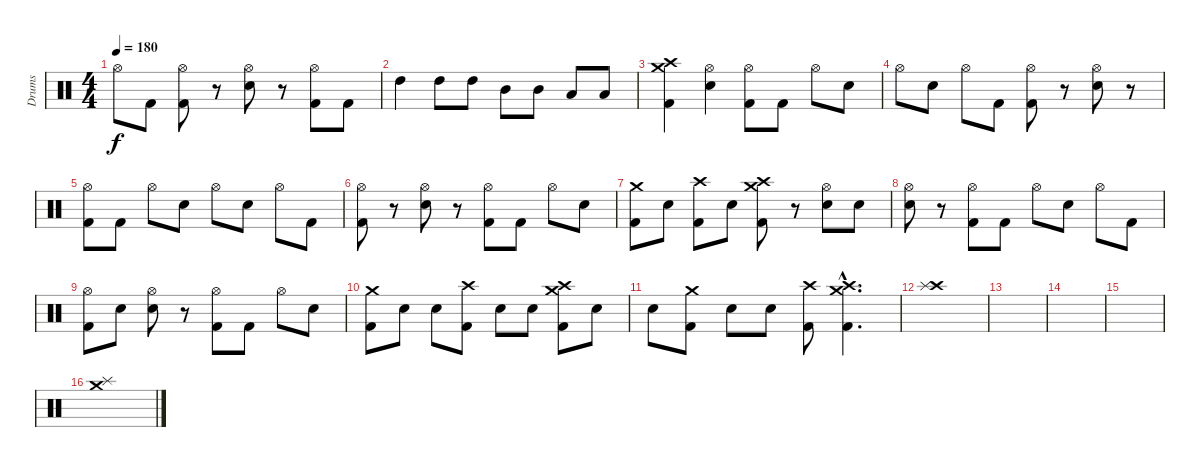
\track ("Drums" "Drums") {instrument percussion}
\staff {score}
\articulation defaults
\ts (4 4)
\tempo 180
\clef neutral
\ks c "Hi-Hat (open)".8{dy f} "Kick (hit) 2".8
("Hi-Hat (open)" "Kick (hit) 2").8 r.8 ("Hi-Hat (open)" "Electric Snare (hit)").8 r.8 ("Hi-Hat (open)" "Kick (hit) 2").8 "Kick (hit) 2".8 |
"High Tom (hit)".4 "High Tom (hit)".8 "High Tom (hit)".8 "Mid Tom (hit)".8 "Mid Tom (hit)".8 "Low Tom (hit)".8 "Low Tom (hit)".8 |
("Crash high (hit)" "Crash medium (hit)" "Kick (hit) 2").4 ("Hi-Hat (open)" "Electric Snare (hit)").4 ("Hi-Hat (open)" "Kick (hit) 2").8 "Kick (hit) 2".8 "Hi-Hat (open)".8 "Electric Snare (hit)".8 |
"Hi-Hat (open)".8 "Electric Snare (hit)".8 "Hi-Hat (open)".8 "Kick (hit) 2".8 ("Hi-Hat (open)" "Kick (hit) 2").8 r.8 ("Hi-Hat (open)" "Electric Snare (hit)").8 r.8 |
("Hi-Hat (open)" "Kick (hit) 2").8 "Kick (hit) 2".8 "Hi-Hat (open)".8 "Electric Snare (hit)".8 "Hi-Hat (open)".8 "Electric Snare (hit)".8 "Hi-Hat (open)".8 "Kick (hit) 2".8 |
("Hi-Hat (open)" "Kick (hit) 2").8 r.8 ("Hi-Hat (open)" "Electric Snare (hit)").8 r.8 ("Hi-Hat (open)" "Kick (hit) 2").8 "Kick (hit) 2".8 "Hi-Hat (open)".8 "Electric Snare (hit)".8 |
("Crash medium (hit)" "Kick (hit) 2").8 "Electric Snare (hit)".8 ("Crash high (hit)" "Kick (hit) 2").8 "Electric Snare (hit)".8 ("Crash high (hit)" "Crash medium (hit)" "Kick (hit) 2").8 r.8 ("Hi-Hat (open)" "Electric Snare (hit)").8 "Electric Snare (hit)".8 |
("Hi-Hat (open)" "Electric Snare (hit)").8 r.8 ("Hi-Hat (open)" "Kick (hit) 2").8 "Kick (hit) 2".8 "Hi-Hat (open)".8 "Electric Snare (hit)".8 "Hi-Hat (open)".8 "Kick (hit) 2".8 |
("Hi-Hat (open)" "Kick (hit) 2").8 "Electric Snare (hit)".8 ("Hi-Hat (open)" "Electric Snare (hit)").8 r.8 ("Hi-Hat (open)" "Kick (hit) 2").8 "Kick (hit) 2".8 "Hi-Hat (open)".8 "Electric Snare (hit)".8 |
("Crash medium (hit)" "Kick (hit) 2").8 "Electric Snare (hit)".8 "Electric Snare (hit)".8 ("Crash high (hit)" "Kick (hit) 2").8 "Electric Snare (hit)".8 "Electric Snare (hit)".8 ("Crash high (hit)" "Crash medium (hit)" "Kick (hit) 2").8 "Electric Snare (hit)".8 |
"Electric Snare (hit)".8 ("Crash medium (hit)" "Kick (hit) 2").8 "Electric Snare (hit)".8 "Electric Snare (hit)".8 ("Crash high (hit)" "Kick (hit) 2").8 ("Crash high (hit)"{hac} "Crash medium (hit)"{hac} "Kick (hit) 2"{hac}).4{d} |
("Crash high (hit)" "Splash (hit)").1 |
|
|
|
("Crash medium (hit)" "Splash (hit)").1
